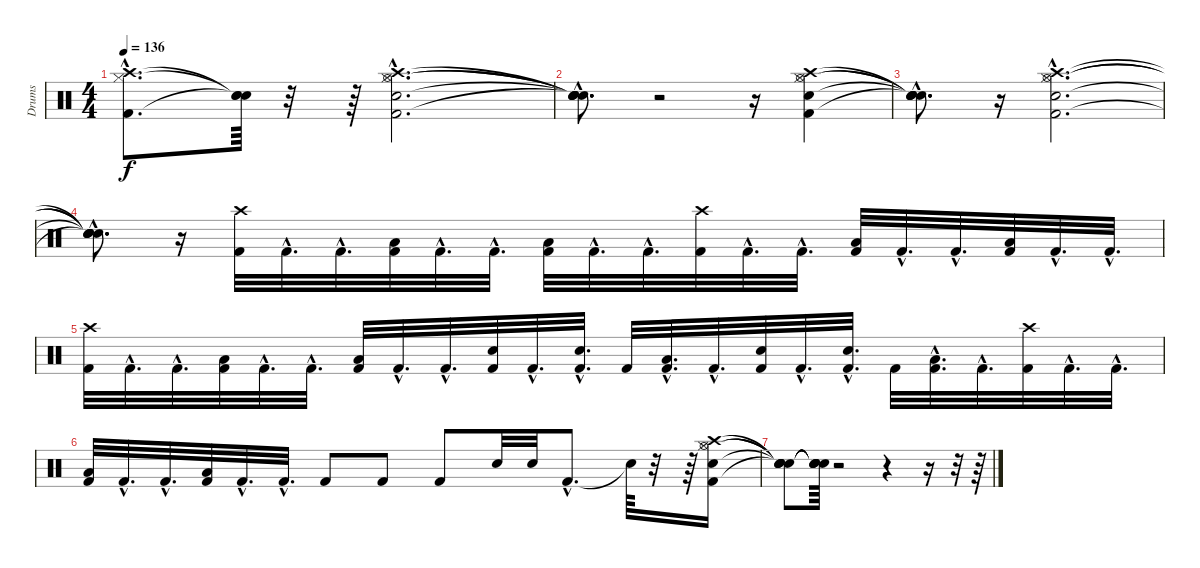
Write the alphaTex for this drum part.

\track ("Drums" "Drums") {instrument percussion}
\staff {score}
\articulation defaults
\ts (4 4)
\tempo 136
\clef neutral
\ks c
("Kick (hit) 2"{hac} "Hi-Hat (closed)"{hac} "Crash high (hit)"{hac}).8{d dy f} ("Snare (hit)"{t} "Snare (hit)"{t} "Snare (hit)"{t}).64 r.32 r.64 ("Kick (hit) 2"{hac} "Snare (hit) 2"{hac} "Hi-Hat (closed)"{hac} "Hi-Hat (open)"{hac} "Crash high (hit)"{hac}).2{d} |
("Snare (hit)"{hac t} "Snare (hit)"{hac t} "Snare (hit)"{hac t} "Snare (hit)"{hac t} "Snare (hit)"{hac t}).8{d} r.2 r.16 ("Kick (hit) 2" "Snare (hit) 2" "Hi-Hat (closed)" "Hi-Hat (open)" "Crash high (hit)").4 |
("Snare (hit)"{hac t} "Snare (hit)"{hac t} "Snare (hit)"{hac t} "Snare (hit)"{hac t} "Snare (hit)"{hac t}).8{d} r.16 ("Kick (hit) 2"{hac} "Snare (hit) 2"{hac} "Hi-Hat (closed)"{hac} "Hi-Hat (open)"{hac} "Crash high (hit)"{hac}).2{d} |
("Snare (hit)"{hac t} "Snare (hit)"{hac t} "Snare (hit)"{hac t} "Snare (hit)"{hac t} "Snare (hit)"{hac t}).8{d} r.16 ("Kick (hit) 2" "Crash high (hit)").32 "Kick (hit) 2"{hac}.32{d} "Kick (hit) 2"{hac}.32{d} ("Kick (hit) 2" "Low Tom (hit)").32 "Kick (hit) 2"{hac}.32{d} "Kick (hit) 2"{hac}.32{d} ("Kick (hit) 2" "Low Floor Tom (hit)").32 "Kick (hit) 2"{hac}.32{d} "Kick (hit) 2"{hac}.32{d} ("Kick (hit) 2" "Crash high (hit)").32 "Kick (hit) 2"{hac}.32{d} "Kick (hit) 2"{hac}.32{d} ("Kick (hit) 2" "Low Tom (hit)").32 "Kick (hit) 2"{hac}.32{d} "Kick (hit) 2"{hac}.32{d} ("Kick (hit) 2" "Low Floor Tom (hit)").32 "Kick (hit) 2"{hac}.32{d} "Kick (hit) 2"{hac}.32{d} |
("Kick (hit) 2" "Crash high (hit)").32 "Kick (hit) 2"{hac}.32{d} "Kick (hit) 2"{hac}.32{d} ("Kick (hit) 2" "Low Tom (hit)").32 "Kick (hit) 2"{hac}.32{d} "Kick (hit) 2"{hac}.32{d} ("Kick (hit) 2" "Low Floor Tom (hit)").32 "Kick (hit) 2"{hac}.32{d} "Kick (hit) 2"{hac}.32{d} ("Kick (hit) 2" "Snare (hit) 2").32 "Kick (hit) 2"{hac}.32{d} ("Kick (hit) 2"{hac} "Snare (hit) 2"{hac}).32{d} "Kick (hit) 2".32 ("Kick (hit) 2"{hac} "Low Floor Tom (hit)"{hac}).32{d} "Kick (hit) 2"{hac}.32{d} ("Kick (hit) 2" "Snare (hit) 2").32 "Kick (hit) 2"{hac}.32{d} ("Kick (hit) 2"{hac} "Snare (hit) 2"{hac}).32{d} "Kick (hit) 2".32 ("Kick (hit) 2"{hac} "Low Floor Tom (hit)"{hac}).32{d} "Kick (hit) 2"{hac}.32{d} ("Kick (hit) 2" "Crash high (hit)").32 "Kick (hit) 2"{hac}.32{d} "Kick (hit) 2"{hac}.32{d} |
("Kick (hit) 2" "Low Tom (hit)").32 "Kick (hit) 2"{hac}.32{d} "Kick (hit) 2"{hac}.32{d} ("Kick (hit) 2" "Low Floor Tom (hit)").32 "Kick (hit) 2"{hac}.32{d} "Kick (hit) 2"{hac}.32{d} "Kick (hit) 2".8 "Kick (hit) 2".8 "Kick (hit) 2".8 "Snare (hit) 2".32 "Snare (hit) 2".32 "Kick (hit) 2"{hac}.8{d} "Snare (hit)"{t}.64 r.32 r.64 ("Kick (hit) 2" "Snare (hit) 2" "Hi-Hat (closed)" "Hi-Hat (open)" "Crash high (hit)").16 |
("Snare (hit)"{t} "Snare (hit)"{t} "Snare (hit)"{t} "Snare (hit)"{t} "Snare (hit)"{t}).8 ("Snare (hit)"{t} "Snare (hit)"{t} "Snare (hit)"{t} "Snare (hit)"{t} "Snare (hit)"{t}).64 r.2 r.4 r.16 r.32 r.64
